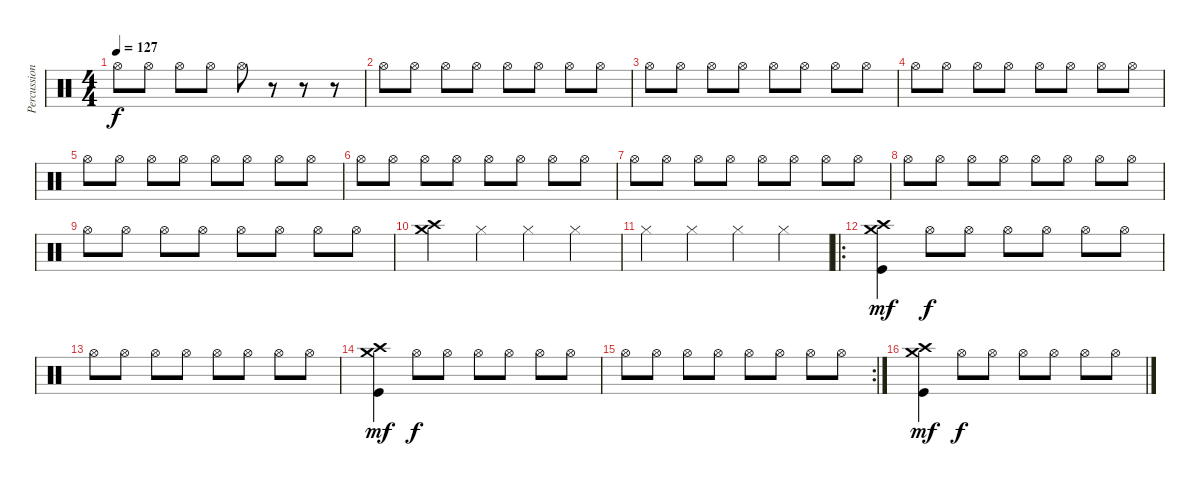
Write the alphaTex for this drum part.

\track ("Percussion" "Percussion") {instrument percussion}
\staff {score}
\articulation defaults
\ts (4 4)
\tempo 127
\clef neutral
\ks c "Hi-Hat (open)".8{dy f} "Hi-Hat (open)".8 "Hi-Hat (open)".8 "Hi-Hat (open)".8 "Hi-Hat (open)".8
r.8 r.8 r.8 |
"Hi-Hat (open)".8 "Hi-Hat (open)".8 "Hi-Hat (open)".8 "Hi-Hat (open)".8 "Hi-Hat (open)".8 "Hi-Hat (open)".8 "Hi-Hat (open)".8 "Hi-Hat (open)".8 |
"Hi-Hat (open)".8 "Hi-Hat (open)".8 "Hi-Hat (open)".8 "Hi-Hat (open)".8 "Hi-Hat (open)".8 "Hi-Hat (open)".8 "Hi-Hat (open)".8 "Hi-Hat (open)".8 |
"Hi-Hat (open)".8 "Hi-Hat (open)".8 "Hi-Hat (open)".8 "Hi-Hat (open)".8 "Hi-Hat (open)".8 "Hi-Hat (open)".8 "Hi-Hat (open)".8 "Hi-Hat (open)".8 |
"Hi-Hat (open)".8 "Hi-Hat (open)".8 "Hi-Hat (open)".8 "Hi-Hat (open)".8 "Hi-Hat (open)".8 "Hi-Hat (open)".8 "Hi-Hat (open)".8 "Hi-Hat (open)".8 |
"Hi-Hat (open)".8 "Hi-Hat (open)".8 "Hi-Hat (open)".8 "Hi-Hat (open)".8 "Hi-Hat (open)".8 "Hi-Hat (open)".8 "Hi-Hat (open)".8 "Hi-Hat (open)".8 |
"Hi-Hat (open)".8 "Hi-Hat (open)".8 "Hi-Hat (open)".8 "Hi-Hat (open)".8 "Hi-Hat (open)".8 "Hi-Hat (open)".8 "Hi-Hat (open)".8 "Hi-Hat (open)".8 |
"Hi-Hat (open)".8 "Hi-Hat (open)".8 "Hi-Hat (open)".8 "Hi-Hat (open)".8 "Hi-Hat (open)".8 "Hi-Hat (open)".8 "Hi-Hat (open)".8 "Hi-Hat (open)".8 |
"Hi-Hat (open)".8 "Hi-Hat (open)".8 "Hi-Hat (open)".8 "Hi-Hat (open)".8 "Hi-Hat (open)".8 "Hi-Hat (open)".8 "Hi-Hat (open)".8 "Hi-Hat (open)".8 |
("Crash medium (hit)" "Crash high (hit)").4 "Hi-Hat (closed)".4 "Hi-Hat (closed)".4 "Hi-Hat (closed)".4 |
"Hi-Hat (closed)".4 "Hi-Hat (closed)".4 "Hi-Hat (closed)".4 "Hi-Hat (closed)".4 |
\ro
("Crash medium (hit)" "Crash high (hit)" "Kick (hit)").4{dy mf volume 12} "Hi-Hat (open)".8{dy f} "Hi-Hat (open)".8 "Hi-Hat (open)".8 "Hi-Hat (open)".8 "Hi-Hat (open)".8 "Hi-Hat (open)".8 |
"Hi-Hat (open)".8 "Hi-Hat (open)".8 "Hi-Hat (open)".8 "Hi-Hat (open)".8 "Hi-Hat (open)".8 "Hi-Hat (open)".8 "Hi-Hat (open)".8 "Hi-Hat (open)".8 |
("Crash medium (hit)" "Crash high (hit)" "Kick (hit)").4{dy mf volume 12} "Hi-Hat (open)".8{dy f} "Hi-Hat (open)".8 "Hi-Hat (open)".8 "Hi-Hat (open)".8 "Hi-Hat (open)".8 "Hi-Hat (open)".8 |
\rc 2 "Hi-Hat (open)".8 "Hi-Hat (open)".8 "Hi-Hat (open)".8 "Hi-Hat (open)".8 "Hi-Hat (open)".8 "Hi-Hat (open)".8 "Hi-Hat (open)".8 "Hi-Hat (open)".8
|
("Crash medium (hit)" "Crash high (hit)" "Kick (hit)").4{dy mf volume 12} "Hi-Hat (open)".8{dy f} "Hi-Hat (open)".8 "Hi-Hat (open)".8 "Hi-Hat (open)".8 "Hi-Hat (open)".8 "Hi-Hat (open)".8
